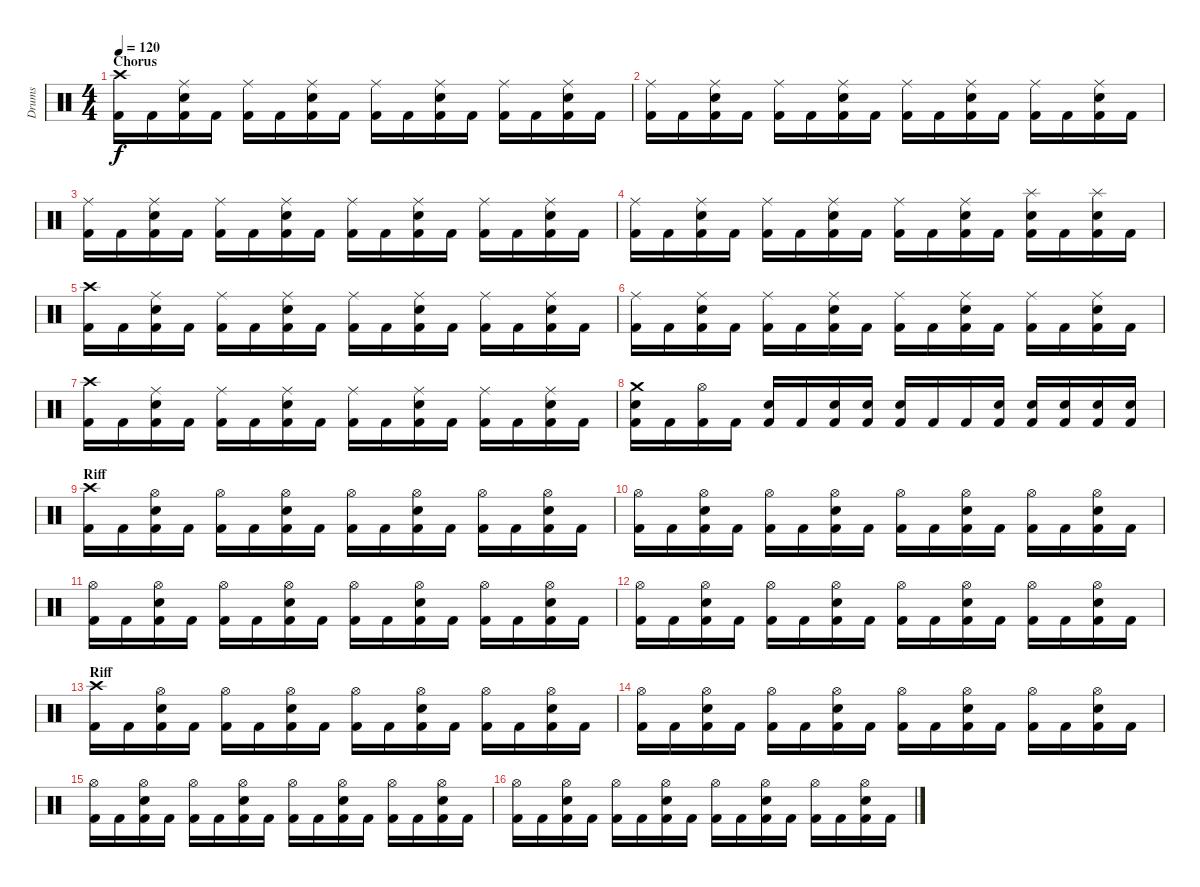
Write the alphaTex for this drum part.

\track ("Drums" "Drums") {instrument percussion}
\staff {score}
\articulation defaults
\ts (4 4)
\section ("" "Chorus")
\tempo 120
\clef neutral
\ks c
("Crash high (hit)" "Kick (hit) 2").16{dy f} "Kick (hit) 2".16 ("Ride (middle)" "Snare (hit) 2" "Kick (hit) 2").16 "Kick (hit) 2".16 ("Ride (middle)" "Kick (hit) 2").16 "Kick (hit) 2".16 ("Ride (middle)" "Snare (hit) 2" "Kick (hit) 2").16 "Kick (hit) 2".16 ("Ride (middle)" "Kick (hit) 2").16 "Kick (hit) 2".16 ("Ride (middle)" "Snare (hit) 2" "Kick (hit) 2").16 "Kick (hit) 2".16 ("Ride (middle)" "Kick (hit) 2").16 "Kick (hit) 2".16 ("Ride (middle)" "Snare (hit) 2" "Kick (hit) 2").16 "Kick (hit) 2".16 |
("Ride (middle)" "Kick (hit) 2").16 "Kick (hit) 2".16 ("Ride (middle)" "Snare (hit) 2" "Kick (hit) 2").16 "Kick (hit) 2".16 ("Ride (middle)" "Kick (hit) 2").16 "Kick (hit) 2".16 ("Ride (middle)" "Snare (hit) 2" "Kick (hit) 2").16 "Kick (hit) 2".16 ("Ride (middle)" "Kick (hit) 2").16 "Kick (hit) 2".16 ("Ride (middle)" "Snare (hit) 2" "Kick (hit) 2").16 "Kick (hit) 2".16 ("Ride (middle)" "Kick (hit) 2").16 "Kick (hit) 2".16 ("Ride (middle)" "Snare (hit) 2" "Kick (hit) 2").16 "Kick (hit) 2".16 |
("Ride (middle)" "Kick (hit) 2").16 "Kick (hit) 2".16 ("Ride (middle)" "Snare (hit) 2" "Kick (hit) 2").16 "Kick (hit) 2".16 ("Ride (middle)" "Kick (hit) 2").16 "Kick (hit) 2".16 ("Ride (middle)" "Snare (hit) 2" "Kick (hit) 2").16 "Kick (hit) 2".16 ("Ride (middle)" "Kick (hit) 2").16 "Kick (hit) 2".16 ("Ride (middle)" "Snare (hit) 2" "Kick (hit) 2").16 "Kick (hit) 2".16 ("Ride (middle)" "Kick (hit) 2").16 "Kick (hit) 2".16 ("Ride (middle)" "Snare (hit) 2" "Kick (hit) 2").16 "Kick (hit) 2".16 |
("Ride (middle)" "Kick (hit) 2").16 "Kick (hit) 2".16 ("Ride (middle)" "Snare (hit) 2" "Kick (hit) 2").16 "Kick (hit) 2".16 ("Ride (middle)" "Kick (hit) 2").16 "Kick (hit) 2".16 ("Ride (middle)" "Snare (hit) 2" "Kick (hit) 2").16 "Kick (hit) 2".16 ("Ride (middle)" "Kick (hit) 2").16 "Kick (hit) 2".16 ("Ride (middle)" "Snare (hit) 2" "Kick (hit) 2").16 "Kick (hit) 2".16 ("Splash (hit)" "Snare (hit) 2" "Kick (hit) 2").16 "Kick (hit) 2".16 ("Splash (hit)" "Snare (hit) 2" "Kick (hit) 2").16 "Kick (hit) 2".16 |
("Crash high (hit)" "Kick (hit) 2").16 "Kick (hit) 2".16 ("Ride (middle)" "Snare (hit) 2" "Kick (hit) 2").16 "Kick (hit) 2".16 ("Ride (middle)" "Kick (hit) 2").16 "Kick (hit) 2".16 ("Ride (middle)" "Snare (hit) 2" "Kick (hit) 2").16 "Kick (hit) 2".16 ("Ride (middle)" "Kick (hit) 2").16 "Kick (hit) 2".16 ("Ride (middle)" "Snare (hit) 2" "Kick (hit) 2").16 "Kick (hit) 2".16 ("Ride (middle)" "Kick (hit) 2").16 "Kick (hit) 2".16 ("Ride (middle)" "Snare (hit) 2" "Kick (hit) 2").16 "Kick (hit) 2".16 |
("Ride (middle)" "Kick (hit) 2").16 "Kick (hit) 2".16 ("Ride (middle)" "Snare (hit) 2" "Kick (hit) 2").16 "Kick (hit) 2".16 ("Ride (middle)" "Kick (hit) 2").16 "Kick (hit) 2".16 ("Ride (middle)" "Snare (hit) 2" "Kick (hit) 2").16 "Kick (hit) 2".16 ("Ride (middle)" "Kick (hit) 2").16 "Kick (hit) 2".16 ("Ride (middle)" "Snare (hit) 2" "Kick (hit) 2").16 "Kick (hit) 2".16 ("Ride (middle)" "Kick (hit) 2").16 "Kick (hit) 2".16 ("Ride (middle)" "Snare (hit) 2" "Kick (hit) 2").16 "Kick (hit) 2".16 |
("Crash high (hit)" "Kick (hit) 2").16 "Kick (hit) 2".16 ("Ride (middle)" "Snare (hit) 2" "Kick (hit) 2").16 "Kick (hit) 2".16 ("Ride (middle)" "Kick (hit) 2").16 "Kick (hit) 2".16 ("Ride (middle)" "Snare (hit) 2" "Kick (hit) 2").16 "Kick (hit) 2".16 ("Ride (middle)" "Kick (hit) 2").16 "Kick (hit) 2".16 ("Ride (middle)" "Snare (hit) 2" "Kick (hit) 2").16 "Kick (hit) 2".16 ("Ride (middle)" "Kick (hit) 2").16 "Kick (hit) 2".16 ("Ride (middle)" "Snare (hit) 2" "Kick (hit) 2").16 "Kick (hit) 2".16 |
("Crash medium (hit)" "Snare (hit) 2" "Kick (hit) 2").16 "Kick (hit) 2".16 ("Hi-Hat (open)" "Kick (hit) 2").16 "Kick (hit) 2".16 ("Snare (hit) 2" "Kick (hit) 2").16 "Kick (hit) 2".16 ("Snare (hit) 2" "Kick (hit) 2").16 ("Snare (hit) 2" "Kick (hit) 2").16 ("Snare (hit) 2" "Kick (hit) 2").16 "Kick (hit) 2".16 "Kick (hit) 2".16 ("Snare (hit) 2" "Kick (hit) 2").16 ("Snare (hit) 2" "Kick (hit) 2").16 ("Snare (hit) 2" "Kick (hit) 2").16 ("Snare (hit) 2" "Kick (hit) 2").16 ("Snare (hit) 2" "Kick (hit) 2").16 |
\section ("" "Riff")
("Crash high (hit)" "Kick (hit) 2").16 "Kick (hit) 2".16 ("Hi-Hat (open)" "Snare (hit) 2" "Kick (hit) 2").16 "Kick (hit) 2".16 ("Hi-Hat (open)" "Kick (hit) 2").16 "Kick (hit) 2".16 ("Hi-Hat (open)" "Snare (hit) 2" "Kick (hit) 2").16 "Kick (hit) 2".16 ("Hi-Hat (open)" "Kick (hit) 2").16 "Kick (hit) 2".16 ("Hi-Hat (open)" "Snare (hit) 2" "Kick (hit) 2").16 "Kick (hit) 2".16 ("Hi-Hat (open)" "Kick (hit) 2").16 "Kick (hit) 2".16 ("Hi-Hat (open)" "Snare (hit) 2" "Kick (hit) 2").16 "Kick (hit) 2".16 |
("Hi-Hat (open)" "Kick (hit) 2").16 "Kick (hit) 2".16 ("Hi-Hat (open)" "Snare (hit) 2" "Kick (hit) 2").16 "Kick (hit) 2".16 ("Hi-Hat (open)" "Kick (hit) 2").16 "Kick (hit) 2".16 ("Hi-Hat (open)" "Snare (hit) 2" "Kick (hit) 2").16 "Kick (hit) 2".16 ("Hi-Hat (open)" "Kick (hit) 2").16 "Kick (hit) 2".16 ("Hi-Hat (open)" "Snare (hit) 2" "Kick (hit) 2").16 "Kick (hit) 2".16 ("Hi-Hat (open)" "Kick (hit) 2").16 "Kick (hit) 2".16 ("Hi-Hat (open)" "Snare (hit) 2" "Kick (hit) 2").16 "Kick (hit) 2".16 |
("Hi-Hat (open)" "Kick (hit) 2").16 "Kick (hit) 2".16 ("Hi-Hat (open)" "Snare (hit) 2" "Kick (hit) 2").16 "Kick (hit) 2".16 ("Hi-Hat (open)" "Kick (hit) 2").16 "Kick (hit) 2".16 ("Hi-Hat (open)" "Snare (hit) 2" "Kick (hit) 2").16 "Kick (hit) 2".16 ("Hi-Hat (open)" "Kick (hit) 2").16 "Kick (hit) 2".16 ("Hi-Hat (open)" "Snare (hit) 2" "Kick (hit) 2").16 "Kick (hit) 2".16 ("Hi-Hat (open)" "Kick (hit) 2").16 "Kick (hit) 2".16 ("Hi-Hat (open)" "Snare (hit) 2" "Kick (hit) 2").16 "Kick (hit) 2".16 |
("Hi-Hat (open)" "Kick (hit) 2").16 "Kick (hit) 2".16 ("Hi-Hat (open)" "Snare (hit) 2" "Kick (hit) 2").16 "Kick (hit) 2".16 ("Hi-Hat (open)" "Kick (hit) 2").16 "Kick (hit) 2".16 ("Hi-Hat (open)" "Snare (hit) 2" "Kick (hit) 2").16 "Kick (hit) 2".16 ("Hi-Hat (open)" "Kick (hit) 2").16 "Kick (hit) 2".16 ("Hi-Hat (open)" "Snare (hit) 2" "Kick (hit) 2").16 "Kick (hit) 2".16 ("Hi-Hat (open)" "Kick (hit) 2").16 "Kick (hit) 2".16 ("Hi-Hat (open)" "Snare (hit) 2" "Kick (hit) 2").16 "Kick (hit) 2".16 |
\section ("" "Riff")
("Crash high (hit)" "Kick (hit) 2").16 "Kick (hit) 2".16 ("Hi-Hat (open)" "Snare (hit) 2" "Kick (hit) 2").16 "Kick (hit) 2".16 ("Hi-Hat (open)" "Kick (hit) 2").16 "Kick (hit) 2".16 ("Hi-Hat (open)" "Snare (hit) 2" "Kick (hit) 2").16 "Kick (hit) 2".16 ("Hi-Hat (open)" "Kick (hit) 2").16 "Kick (hit) 2".16 ("Hi-Hat (open)" "Snare (hit) 2" "Kick (hit) 2").16 "Kick (hit) 2".16 ("Hi-Hat (open)" "Kick (hit) 2").16 "Kick (hit) 2".16 ("Hi-Hat (open)" "Snare (hit) 2" "Kick (hit) 2").16 "Kick (hit) 2".16 |
("Hi-Hat (open)" "Kick (hit) 2").16 "Kick (hit) 2".16 ("Hi-Hat (open)" "Snare (hit) 2" "Kick (hit) 2").16 "Kick (hit) 2".16 ("Hi-Hat (open)" "Kick (hit) 2").16 "Kick (hit) 2".16 ("Hi-Hat (open)" "Snare (hit) 2" "Kick (hit) 2").16 "Kick (hit) 2".16 ("Hi-Hat (open)" "Kick (hit) 2").16 "Kick (hit) 2".16 ("Hi-Hat (open)" "Snare (hit) 2" "Kick (hit) 2").16 "Kick (hit) 2".16 ("Hi-Hat (open)" "Kick (hit) 2").16 "Kick (hit) 2".16 ("Hi-Hat (open)" "Snare (hit) 2" "Kick (hit) 2").16 "Kick (hit) 2".16 |
("Hi-Hat (open)" "Kick (hit) 2").16 "Kick (hit) 2".16 ("Hi-Hat (open)" "Snare (hit) 2" "Kick (hit) 2").16 "Kick (hit) 2".16 ("Hi-Hat (open)" "Kick (hit) 2").16 "Kick (hit) 2".16 ("Hi-Hat (open)" "Snare (hit) 2" "Kick (hit) 2").16 "Kick (hit) 2".16 ("Hi-Hat (open)" "Kick (hit) 2").16 "Kick (hit) 2".16 ("Hi-Hat (open)" "Snare (hit) 2" "Kick (hit) 2").16 "Kick (hit) 2".16 ("Hi-Hat (open)" "Kick (hit) 2").16 "Kick (hit) 2".16 ("Hi-Hat (open)" "Snare (hit) 2" "Kick (hit) 2").16 "Kick (hit) 2".16 |
("Hi-Hat (open)" "Kick (hit) 2").16 "Kick (hit) 2".16 ("Hi-Hat (open)" "Snare (hit) 2" "Kick (hit) 2").16 "Kick (hit) 2".16 ("Hi-Hat (open)" "Kick (hit) 2").16 "Kick (hit) 2".16 ("Hi-Hat (open)" "Snare (hit) 2" "Kick (hit) 2").16 "Kick (hit) 2".16 ("Hi-Hat (open)" "Kick (hit) 2").16 "Kick (hit) 2".16 ("Hi-Hat (open)" "Snare (hit) 2" "Kick (hit) 2").16 "Kick (hit) 2".16 ("Hi-Hat (open)" "Kick (hit) 2").16 "Kick (hit) 2".16 ("Hi-Hat (open)" "Snare (hit) 2" "Kick (hit) 2").16 "Kick (hit) 2".16
